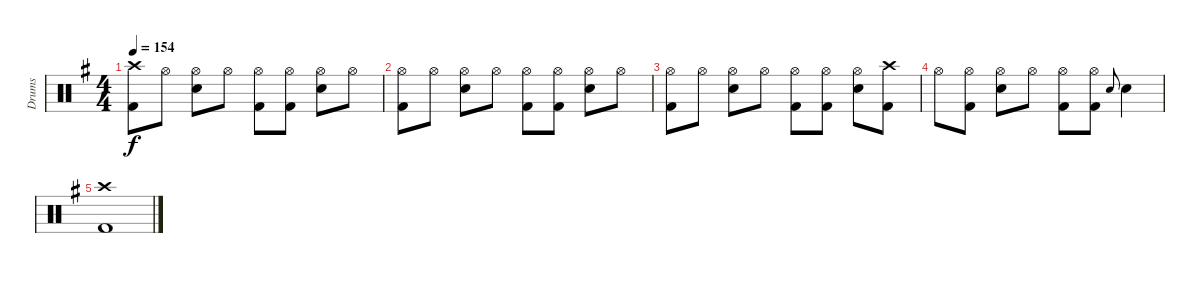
\track ("Drums" "Drums") {instrument percussion}
\staff {score}
\articulation defaults
\ts (4 4)
\tempo 154
\clef neutral
\ks g
("Crash high (hit)" "Kick (hit) 2").8{dy f} "Hi-Hat (open)".8 ("Hi-Hat (open)" "Electric Snare (hit)").8 "Hi-Hat (open)".8 ("Hi-Hat (open)" "Kick (hit) 2").8 ("Kick (hit) 2" "Hi-Hat (open)").8 ("Hi-Hat (open)" "Electric Snare (hit)").8 "Hi-Hat (open)".8 |
("Hi-Hat (open)" "Kick (hit) 2").8 "Hi-Hat (open)".8 ("Hi-Hat (open)" "Electric Snare (hit)").8 "Hi-Hat (open)".8 ("Hi-Hat (open)" "Kick (hit) 2").8 ("Kick (hit) 2" "Hi-Hat (open)").8 ("Hi-Hat (open)" "Electric Snare (hit)").8 "Hi-Hat (open)".8 |
("Hi-Hat (open)" "Kick (hit) 2").8 "Hi-Hat (open)".8 ("Hi-Hat (open)" "Electric Snare (hit)").8 "Hi-Hat (open)".8 ("Hi-Hat (open)" "Kick (hit) 2").8 ("Hi-Hat (open)" "Kick (hit) 2").8 ("Hi-Hat (open)" "Electric Snare (hit)").8 ("Crash high (hit)" "Kick (hit) 2").8 |
"Hi-Hat (open)".8 ("Kick (hit) 2" "Hi-Hat (open)").8 ("Hi-Hat (open)" "Electric Snare (hit)").8 "Hi-Hat (open)".8 ("Hi-Hat (open)" "Kick (hit) 2").8 ("Hi-Hat (open)" "Kick (hit) 2").8 "Electric Snare (hit)".8{gr onbeat} "Electric Snare (hit)".4 |
("Crash high (hit)" "Kick (hit) 2").1
